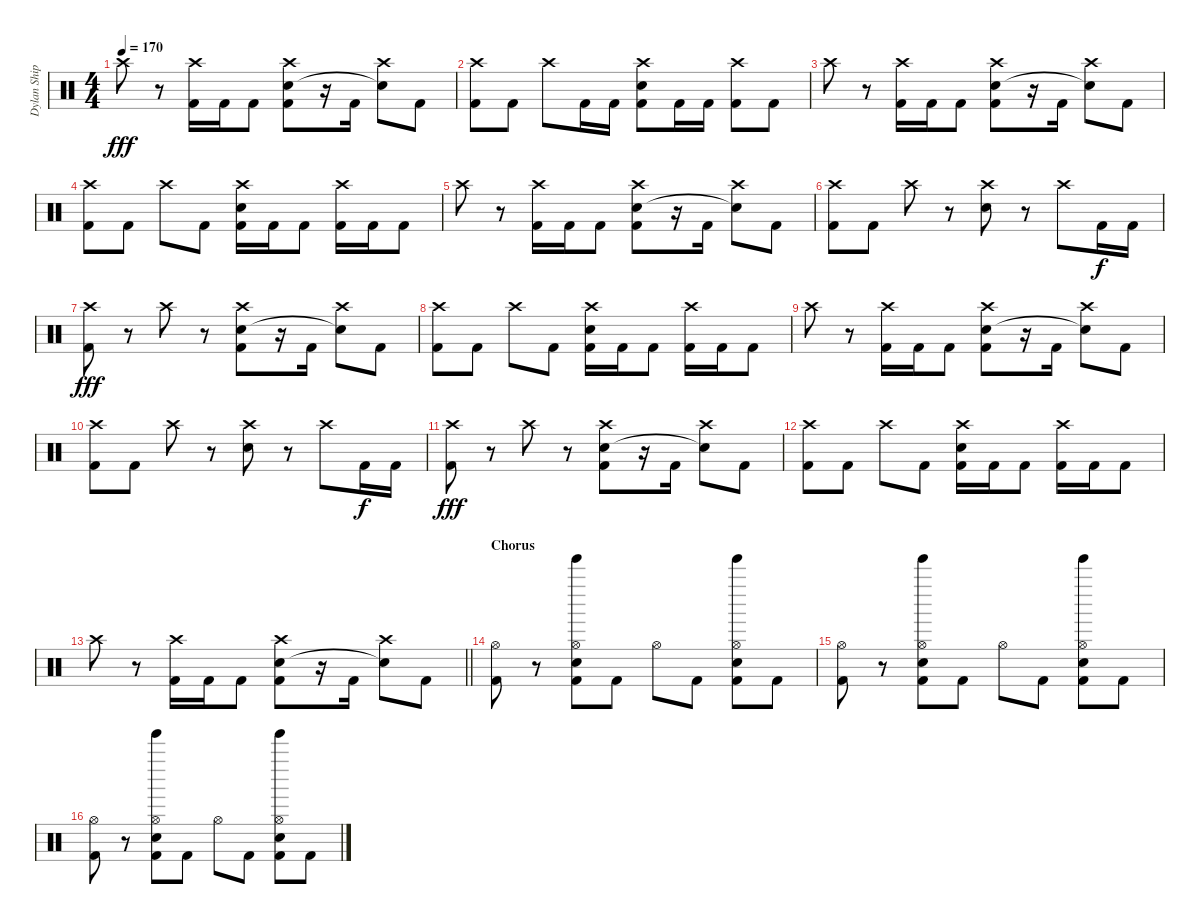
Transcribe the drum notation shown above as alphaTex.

\track ("Dylan Shippey" "Dylan Ship") {instrument percussion}
\staff {score}
\articulation defaults
\ts (4 4)
\tempo 170
\clef neutral
\ks c "Crash high (hit)".8{dy fff}
r.8 ("Crash high (hit)" "Kick (hit) 2").16 "Kick (hit) 2".16 "Kick (hit) 2".8 ("Crash high (hit)" "Electric Snare (hit)" "Kick (hit) 2").8 r.16 "Kick (hit) 2".16 ("Crash high (hit)" "Snare (hit)"{t}).8 "Kick (hit) 2".8 |
("Crash high (hit)" "Kick (hit) 2").8 "Kick (hit) 2".8 "Crash high (hit)".8 "Kick (hit) 2".16 "Kick (hit) 2".16 ("Crash high (hit)" "Electric Snare (hit)" "Kick (hit) 2").8 "Kick (hit) 2".16 "Kick (hit) 2".16 ("Crash high (hit)" "Kick (hit) 2").8 "Kick (hit) 2".8 |
"Crash high (hit)".8 r.8 ("Crash high (hit)" "Kick (hit) 2").16 "Kick (hit) 2".16 "Kick (hit) 2".8 ("Crash high (hit)" "Electric Snare (hit)" "Kick (hit) 2").8 r.16 "Kick (hit) 2".16 ("Crash high (hit)" "Snare (hit)"{t}).8 "Kick (hit) 2".8 |
("Crash high (hit)" "Kick (hit) 2").8 "Kick (hit) 2".8 "Crash high (hit)".8 "Kick (hit) 2".8 ("Crash high (hit)" "Electric Snare (hit)" "Kick (hit) 2").16 "Kick (hit) 2".16 "Kick (hit) 2".8 ("Crash high (hit)" "Kick (hit) 2").16 "Kick (hit) 2".16 "Kick (hit) 2".8 |
"Crash high (hit)".8 r.8 ("Crash high (hit)" "Kick (hit) 2").16 "Kick (hit) 2".16 "Kick (hit) 2".8 ("Crash high (hit)" "Electric Snare (hit)" "Kick (hit) 2").8 r.16 "Kick (hit) 2".16 ("Crash high (hit)" "Snare (hit)"{t}).8 "Kick (hit) 2".8 |
("Crash high (hit)" "Kick (hit) 2").8 "Kick (hit) 2".8 "Crash high (hit)".8 r.8 ("Crash high (hit)" "Electric Snare (hit)").8 r.8 "Crash high (hit)".8 "Kick (hit) 2".16{dy f} "Kick (hit) 2".16 |
("Crash high (hit)" "Kick (hit) 2").8{dy fff} r.8 "Crash high (hit)".8 r.8 ("Crash high (hit)" "Electric Snare (hit)" "Kick (hit) 2").8 r.16 "Kick (hit) 2".16 ("Crash high (hit)" "Snare (hit)"{t}).8 "Kick (hit) 2".8 |
("Crash high (hit)" "Kick (hit) 2").8 "Kick (hit) 2".8 "Crash high (hit)".8 "Kick (hit) 2".8 ("Crash high (hit)" "Electric Snare (hit)" "Kick (hit) 2").16 "Kick (hit) 2".16 "Kick (hit) 2".8 ("Crash high (hit)" "Kick (hit) 2").16 "Kick (hit) 2".16 "Kick (hit) 2".8 |
"Crash high (hit)".8 r.8 ("Crash high (hit)" "Kick (hit) 2").16 "Kick (hit) 2".16 "Kick (hit) 2".8 ("Crash high (hit)" "Electric Snare (hit)" "Kick (hit) 2").8 r.16 "Kick (hit) 2".16 ("Crash high (hit)" "Snare (hit)"{t}).8 "Kick (hit) 2".8 |
("Crash high (hit)" "Kick (hit) 2").8 "Kick (hit) 2".8 "Crash high (hit)".8 r.8 ("Crash high (hit)" "Electric Snare (hit)").8 r.8 "Crash high (hit)".8 "Kick (hit) 2".16{dy f} "Kick (hit) 2".16 |
("Crash high (hit)" "Kick (hit) 2").8{dy fff} r.8 "Crash high (hit)".8 r.8 ("Crash high (hit)" "Electric Snare (hit)" "Kick (hit) 2").8 r.16 "Kick (hit) 2".16 ("Crash high (hit)" "Snare (hit)"{t}).8 "Kick (hit) 2".8 |
("Crash high (hit)" "Kick (hit) 2").8 "Kick (hit) 2".8 "Crash high (hit)".8 "Kick (hit) 2".8 ("Crash high (hit)" "Electric Snare (hit)" "Kick (hit) 2").16 "Kick (hit) 2".16 "Kick (hit) 2".8 ("Crash high (hit)" "Kick (hit) 2").16 "Kick (hit) 2".16 "Kick (hit) 2".8 |
\barLineRight lightlight "Crash high (hit)".8
r.8 ("Crash high (hit)" "Kick (hit) 2").16 "Kick (hit) 2".16 "Kick (hit) 2".8 ("Crash high (hit)" "Electric Snare (hit)" "Kick (hit) 2").8 r.16 "Kick (hit) 2".16 ("Crash high (hit)" "Snare (hit)"{t}).8 "Kick (hit) 2".8 |
\section ("" "Chorus")
("Hi-Hat (open)" "Kick (hit) 2").8 r.8 ("Tinkle Bell (hit)" "Electric Snare (hit)" "Hi-Hat (open)" "Kick (hit) 2").8 "Kick (hit) 2".8 "Hi-Hat (open)".8 "Kick (hit) 2".8 ("Tinkle Bell (hit)" "Electric Snare (hit)" "Hi-Hat (open)" "Kick (hit) 2").8 "Kick (hit) 2".8 |
("Hi-Hat (open)" "Kick (hit) 2").8 r.8 ("Tinkle Bell (hit)" "Electric Snare (hit)" "Hi-Hat (open)" "Kick (hit) 2").8 "Kick (hit) 2".8 "Hi-Hat (open)".8 "Kick (hit) 2".8 ("Tinkle Bell (hit)" "Electric Snare (hit)" "Hi-Hat (open)" "Kick (hit) 2").8 "Kick (hit) 2".8 |
("Hi-Hat (open)" "Kick (hit) 2").8 r.8 ("Tinkle Bell (hit)" "Electric Snare (hit)" "Hi-Hat (open)" "Kick (hit) 2").8 "Kick (hit) 2".8 "Hi-Hat (open)".8 "Kick (hit) 2".8 ("Tinkle Bell (hit)" "Electric Snare (hit)" "Hi-Hat (open)" "Kick (hit) 2").8 "Kick (hit) 2".8
